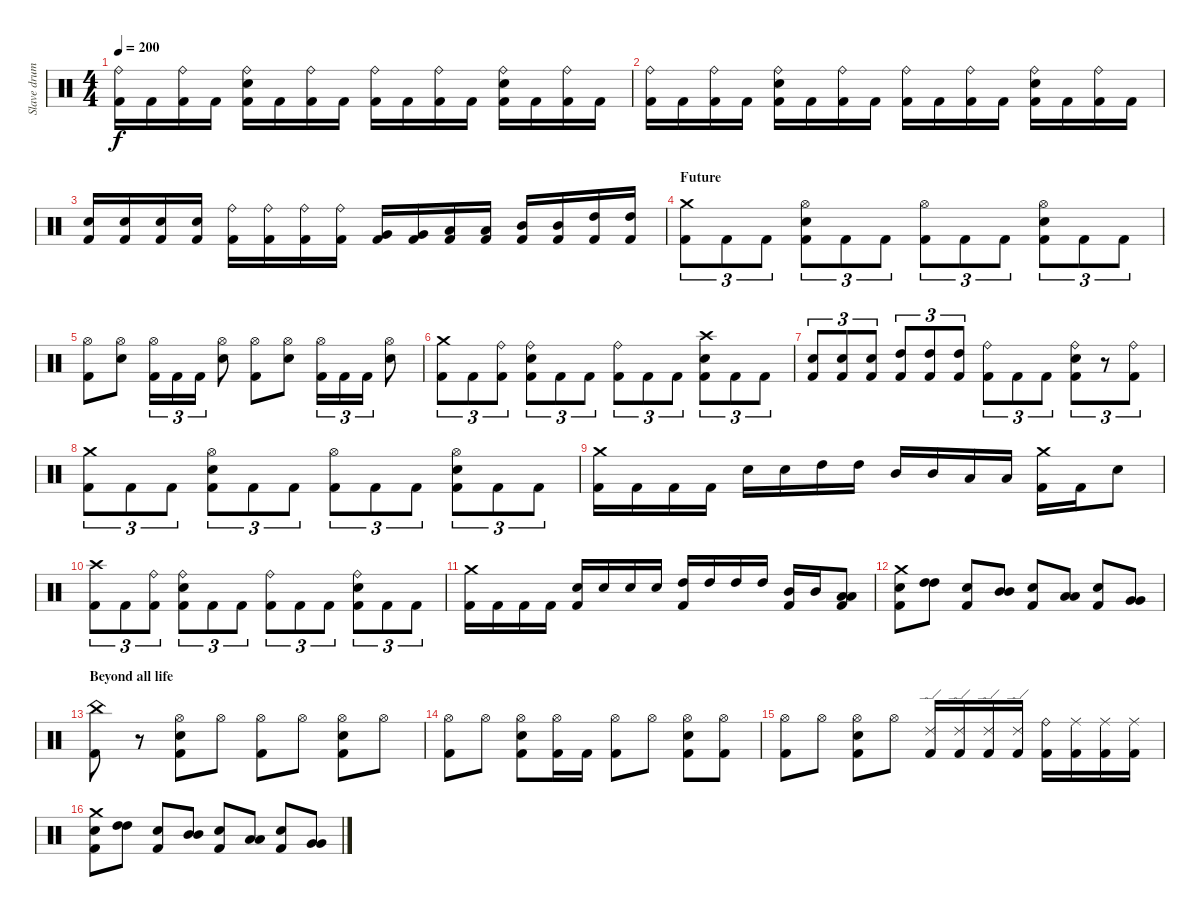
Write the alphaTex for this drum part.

\track ("Slave drum" "Slave drum") {instrument percussion}
\staff {score}
\articulation defaults
\ts (4 4)
\tempo 200
\clef neutral
\ks c
("Ride (bell)" "Kick (hit) 2").16{dy f} "Kick (hit) 2".16 ("Ride (bell)" "Kick (hit) 2").16 "Kick (hit) 2".16 ("Ride (bell)" "Electric Snare (hit)" "Kick (hit) 2").16 "Kick (hit) 2".16 ("Ride (bell)" "Kick (hit) 2").16 "Kick (hit) 2".16 ("Ride (bell)" "Kick (hit) 2").16 "Kick (hit) 2".16 ("Ride (bell)" "Kick (hit) 2").16 "Kick (hit) 2".16 ("Ride (bell)" "Electric Snare (hit)" "Kick (hit) 2").16 "Kick (hit) 2".16 ("Ride (bell)" "Kick (hit) 2").16 "Kick (hit) 2".16 |
("Ride (bell)" "Kick (hit) 2").16 "Kick (hit) 2".16 ("Ride (bell)" "Kick (hit) 2").16 "Kick (hit) 2".16 ("Ride (bell)" "Electric Snare (hit)" "Kick (hit) 2").16 "Kick (hit) 2".16 ("Ride (bell)" "Kick (hit) 2").16 "Kick (hit) 2".16 ("Ride (bell)" "Kick (hit) 2").16 "Kick (hit) 2".16 ("Ride (bell)" "Kick (hit) 2").16 "Kick (hit) 2".16 ("Ride (bell)" "Electric Snare (hit)" "Kick (hit) 2").16 "Kick (hit) 2".16 ("Ride (bell)" "Kick (hit) 2").16 "Kick (hit) 2".16 |
("Electric Snare (hit)" "Kick (hit) 2").16 ("Electric Snare (hit)" "Kick (hit) 2").16 ("Electric Snare (hit)" "Kick (hit) 2").16 ("Electric Snare (hit)" "Kick (hit) 2").16 ("Ride (bell)" "Kick (hit) 2").16 ("Ride (bell)" "Kick (hit) 2").16 ("Ride (bell)" "Kick (hit) 2").16 ("Ride (bell)" "Kick (hit) 2").16 ("Very Low Tom (hit)" "Kick (hit) 2").16 ("Very Low Tom (hit)" "Kick (hit) 2").16 ("Low Tom (hit)" "Kick (hit) 2").16 ("Low Tom (hit)" "Kick (hit) 2").16 ("Mid Tom (hit)" "Kick (hit) 2").16 ("Mid Tom (hit)" "Kick (hit) 2").16 ("High Tom (hit)" "Kick (hit) 2").16 ("High Tom (hit)" "Kick (hit) 2").16 |
\section ("" "Future")
("Crash medium (hit)" "Kick (hit) 2").8{tu (3 2)} "Kick (hit) 2".8{tu (3 2)} "Kick (hit) 2".8{tu (3 2)} ("Hi-Hat (open)" "Electric Snare (hit)" "Kick (hit) 2").8{tu (3 2)} "Kick (hit) 2".8{tu (3 2)} "Kick (hit) 2".8{tu (3 2)} ("Hi-Hat (open)" "Kick (hit) 2").8{tu (3 2)} "Kick (hit) 2".8{tu (3 2)} "Kick (hit) 2".8{tu (3 2)} ("Hi-Hat (open)" "Electric Snare (hit)" "Kick (hit) 2").8{tu (3 2)} "Kick (hit) 2".8{tu (3 2)} "Kick (hit) 2".8{tu (3 2)} |
("Hi-Hat (open)" "Kick (hit) 2").8 ("Hi-Hat (open)" "Electric Snare (hit)").8 ("Hi-Hat (open)" "Kick (hit) 2").16{tu (3 2)} "Kick (hit) 2".16{tu (3 2)} "Kick (hit) 2".16{tu (3 2)} ("Hi-Hat (open)" "Electric Snare (hit)").8 ("Hi-Hat (open)" "Kick (hit) 2").8 ("Hi-Hat (open)" "Electric Snare (hit)").8 ("Hi-Hat (open)" "Kick (hit) 2").16{tu (3 2)} "Kick (hit) 2".16{tu (3 2)} "Kick (hit) 2".16{tu (3 2)} ("Hi-Hat (open)" "Electric Snare (hit)").8 |
("Crash medium (hit)" "Kick (hit) 2").8{tu (3 2)} "Kick (hit) 2".8{tu (3 2)} ("Ride (bell)" "Kick (hit) 2").8{tu (3 2)} ("Ride (bell)" "Electric Snare (hit)" "Kick (hit) 2").8{tu (3 2)} "Kick (hit) 2".8{tu (3 2)} "Kick (hit) 2".8{tu (3 2)} ("Ride (bell)" "Kick (hit) 2").8{tu (3 2)} "Kick (hit) 2".8{tu (3 2)} "Kick (hit) 2".8{tu (3 2)} ("Crash high (hit)" "Electric Snare (hit)" "Kick (hit) 2").8{tu (3 2)} "Kick (hit) 2".8{tu (3 2)} "Kick (hit) 2".8{tu (3 2)} |
("Electric Snare (hit)" "Kick (hit) 2").8{tu (3 2)} ("Electric Snare (hit)" "Kick (hit) 2").8{tu (3 2)} ("Electric Snare (hit)" "Kick (hit) 2").8{tu (3 2)} ("High Tom (hit)" "Kick (hit) 2").8{tu (3 2)} ("High Tom (hit)" "Kick (hit) 2").8{tu (3 2)} ("High Tom (hit)" "Kick (hit) 2").8{tu (3 2)} ("Ride (bell)" "Kick (hit) 2").8{tu (3 2)} "Kick (hit) 2".8{tu (3 2)} "Kick (hit) 2".8{tu (3 2)} ("Ride (bell)" "Electric Snare (hit)" "Kick (hit) 2").8{tu (3 2)} r.8{tu (3 2)} ("Ride (bell)" "Kick (hit) 2").8{tu (3 2)} |
("Crash medium (hit)" "Kick (hit) 2").8{tu (3 2)} "Kick (hit) 2".8{tu (3 2)} "Kick (hit) 2".8{tu (3 2)} ("Hi-Hat (open)" "Electric Snare (hit)" "Kick (hit) 2").8{tu (3 2)} "Kick (hit) 2".8{tu (3 2)} "Kick (hit) 2".8{tu (3 2)} ("Hi-Hat (open)" "Kick (hit) 2").8{tu (3 2)} "Kick (hit) 2".8{tu (3 2)} "Kick (hit) 2".8{tu (3 2)} ("Hi-Hat (open)" "Electric Snare (hit)" "Kick (hit) 2").8{tu (3 2)} "Kick (hit) 2".8{tu (3 2)} "Kick (hit) 2".8{tu (3 2)} |
("Crash medium (hit)" "Kick (hit) 2").16 "Kick (hit) 2".16 "Kick (hit) 2".16 "Kick (hit) 2".16 "Electric Snare (hit)".16 "Electric Snare (hit)".16 "High Tom (hit)".16 "High Tom (hit)".16 "Mid Tom (hit)".16 "Mid Tom (hit)".16 "Low Tom (hit)".16 "Low Tom (hit)".16 ("Crash medium (hit)" "Kick (hit) 2").16 "Kick (hit) 2".16 "Electric Snare (hit)".8 |
("Crash high (hit)" "Kick (hit) 2").8{tu (3 2)} "Kick (hit) 2".8{tu (3 2)} ("Ride (bell)" "Kick (hit) 2").8{tu (3 2)} ("Ride (bell)" "Electric Snare (hit)" "Kick (hit) 2").8{tu (3 2)} "Kick (hit) 2".8{tu (3 2)} "Kick (hit) 2".8{tu (3 2)} ("Ride (bell)" "Kick (hit) 2").8{tu (3 2)} "Kick (hit) 2".8{tu (3 2)} "Kick (hit) 2".8{tu (3 2)} ("Ride (bell)" "Electric Snare (hit)" "Kick (hit) 2").8{tu (3 2)} "Kick (hit) 2".8{tu (3 2)} "Kick (hit) 2".8{tu (3 2)} |
("Crash medium (hit)" "Kick (hit) 2").16 "Kick (hit) 2".16 "Kick (hit) 2".16 "Kick (hit) 2".16 ("Electric Snare (hit)" "Kick (hit) 2").16 "Electric Snare (hit)".16 "Electric Snare (hit)".16 "Electric Snare (hit)".16 ("High Tom (hit)" "Kick (hit) 2").16 "High Tom (hit)".16 "High Tom (hit)".16 "High Tom (hit)".16 ("Mid Tom (hit)" "Kick (hit) 2").16 "Mid Tom (hit)".16 ("Low Tom (hit)" "Low Tom (hit)" "Kick (hit) 2").8 |
("Crash medium (hit)" "Electric Snare (hit)" "Kick (hit) 2").8 ("High Tom (hit)" "High Tom (hit)").8 ("Electric Snare (hit)" "Kick (hit) 2").8 ("Mid Tom (hit)" "Mid Tom (hit)").8 ("Electric Snare (hit)" "Kick (hit) 2").8 ("Low Tom (hit)" "Low Tom (hit)").8 ("Electric Snare (hit)" "Kick (hit) 2").8 ("Very Low Tom (hit)" "Very Low Tom (hit)").8 |
\section ("" "Beyond all life")
("China (hit)" "Kick (hit) 2").8 r.8 ("Hi-Hat (open)" "Electric Snare (hit)" "Kick (hit) 2").8 "Hi-Hat (open)".8 ("Hi-Hat (open)" "Kick (hit) 2").8 "Hi-Hat (open)".8 ("Hi-Hat (open)" "Electric Snare (hit)" "Kick (hit) 2").8 "Hi-Hat (open)".8 |
("Hi-Hat (open)" "Kick (hit) 2").8 "Hi-Hat (open)".8 ("Hi-Hat (open)" "Electric Snare (hit)" "Kick (hit) 2").8 ("Hi-Hat (open)" "Kick (hit) 2").16 "Kick (hit) 2".16 ("Hi-Hat (open)" "Kick (hit) 2").8 "Hi-Hat (open)".8 ("Hi-Hat (open)" "Electric Snare (hit)" "Kick (hit) 2").8 ("Hi-Hat (open)" "Kick (hit) 2").8 |
("Hi-Hat (open)" "Kick (hit) 2").8 "Hi-Hat (open)".8 ("Hi-Hat (open)" "Electric Snare (hit)" "Kick (hit) 2").8 "Hi-Hat (open)".8 ("Ride (edge) 2" "Kick (hit) 2").16 ("Ride (edge) 2" "Kick (hit) 2").16 ("Ride (edge) 2" "Kick (hit) 2").16 ("Ride (edge) 2" "Kick (hit) 2").16 ("Ride (bell)" "Kick (hit) 2").16 ("Ride (middle)" "Kick (hit) 2").16 ("Ride (middle)" "Kick (hit) 2").16 ("Ride (middle)" "Kick (hit) 2").16 |
("Crash medium (hit)" "Electric Snare (hit)" "Kick (hit) 2").8 ("High Tom (hit)" "High Tom (hit)").8 ("Electric Snare (hit)" "Kick (hit) 2").8 ("Mid Tom (hit)" "Mid Tom (hit)").8 ("Electric Snare (hit)" "Kick (hit) 2").8 ("Low Tom (hit)" "Low Tom (hit)").8 ("Electric Snare (hit)" "Kick (hit) 2").8 ("Very Low Tom (hit)" "Very Low Tom (hit)").8
